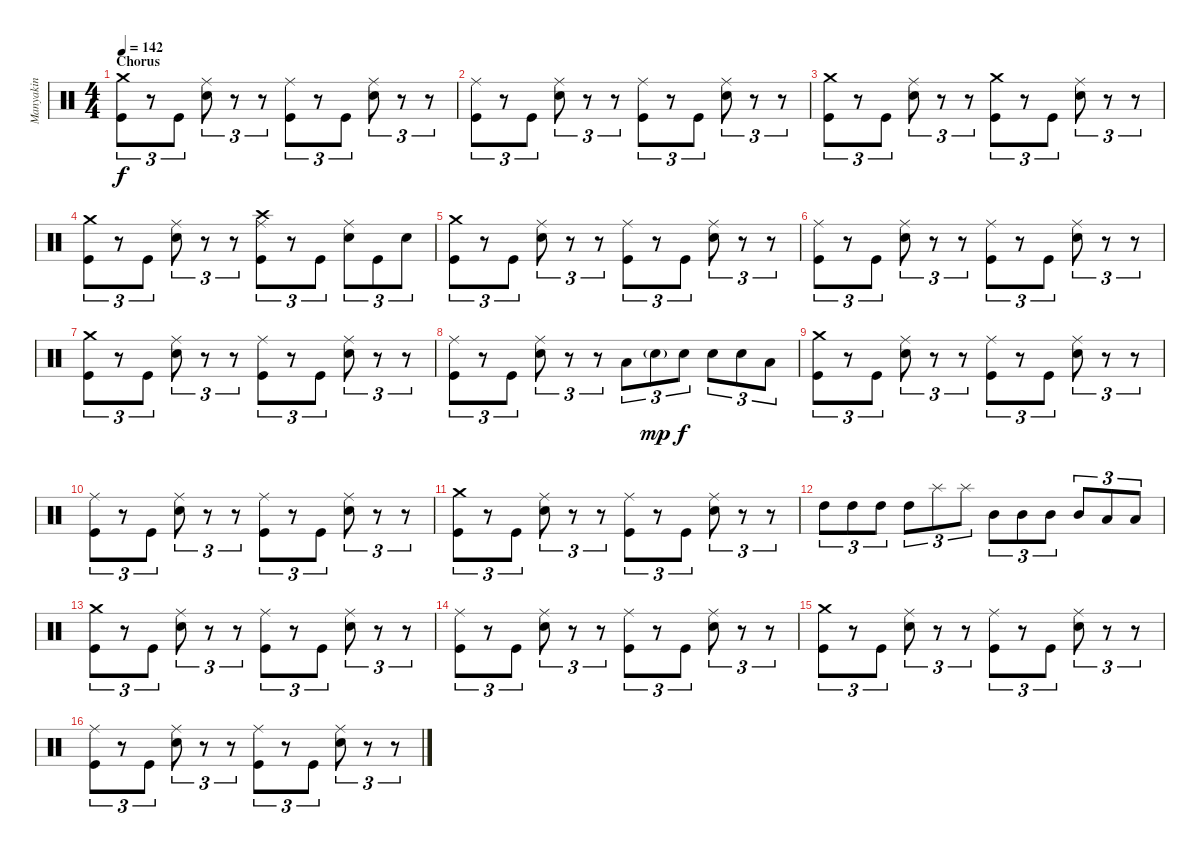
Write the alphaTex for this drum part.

\track ("Manyakin" "Manyakin") {instrument percussion}
\staff {score}
\articulation defaults
\ts (4 4)
\section ("" "Chorus")
\tempo 142
\clef neutral
\ks c
("Kick (hit)" "Crash medium (hit)").8{tu (3 2) dy f} r.8{tu (3 2)} "Kick (hit)".8{tu (3 2)} ("Electric Snare (hit)" "Ride (middle)").8{tu (3 2)} r.8{tu (3 2)} r.8{tu (3 2)} ("Kick (hit)" "Ride (middle)").8{tu (3 2)} r.8{tu (3 2)} "Kick (hit)".8{tu (3 2)} ("Electric Snare (hit)" "Ride (middle)").8{tu (3 2)} r.8{tu (3 2)} r.8{tu (3 2)} |
("Kick (hit)" "Ride (middle)").8{tu (3 2)} r.8{tu (3 2)} "Kick (hit)".8{tu (3 2)} ("Electric Snare (hit)" "Ride (middle)").8{tu (3 2)} r.8{tu (3 2)} r.8{tu (3 2)} ("Kick (hit)" "Ride (middle)").8{tu (3 2)} r.8{tu (3 2)} "Kick (hit)".8{tu (3 2)} ("Electric Snare (hit)" "Ride (middle)").8{tu (3 2)} r.8{tu (3 2)} r.8{tu (3 2)} |
("Kick (hit)" "Crash medium (hit)").8{tu (3 2)} r.8{tu (3 2)} "Kick (hit)".8{tu (3 2)} ("Electric Snare (hit)" "Ride (middle)").8{tu (3 2)} r.8{tu (3 2)} r.8{tu (3 2)} ("Kick (hit)" "Crash medium (hit)").8{tu (3 2)} r.8{tu (3 2)} "Kick (hit)".8{tu (3 2)} ("Electric Snare (hit)" "Ride (middle)").8{tu (3 2)} r.8{tu (3 2)} r.8{tu (3 2)} |
("Kick (hit)" "Crash medium (hit)").8{tu (3 2)} r.8{tu (3 2)} "Kick (hit)".8{tu (3 2)} ("Electric Snare (hit)" "Ride (middle)").8{tu (3 2)} r.8{tu (3 2)} r.8{tu (3 2)} ("Kick (hit)" "Crash high (hit)" "Ride (middle)").8{tu (3 2)} r.8{tu (3 2)} "Kick (hit)".8{tu (3 2)} ("Electric Snare (hit)" "Ride (middle)").8{tu (3 2)} "Kick (hit)".8{tu (3 2)} "Electric Snare (hit)".8{tu (3 2)} |
("Kick (hit)" "Crash medium (hit)").8{tu (3 2)} r.8{tu (3 2)} "Kick (hit)".8{tu (3 2)} ("Electric Snare (hit)" "Ride (middle)").8{tu (3 2)} r.8{tu (3 2)} r.8{tu (3 2)} ("Kick (hit)" "Ride (middle)").8{tu (3 2)} r.8{tu (3 2)} "Kick (hit)".8{tu (3 2)} ("Electric Snare (hit)" "Ride (middle)").8{tu (3 2)} r.8{tu (3 2)} r.8{tu (3 2)} |
("Kick (hit)" "Ride (middle)").8{tu (3 2)} r.8{tu (3 2)} "Kick (hit)".8{tu (3 2)} ("Electric Snare (hit)" "Ride (middle)").8{tu (3 2)} r.8{tu (3 2)} r.8{tu (3 2)} ("Kick (hit)" "Ride (middle)").8{tu (3 2)} r.8{tu (3 2)} "Kick (hit)".8{tu (3 2)} ("Electric Snare (hit)" "Ride (middle)").8{tu (3 2)} r.8{tu (3 2)} r.8{tu (3 2)} |
("Kick (hit)" "Crash medium (hit)").8{tu (3 2)} r.8{tu (3 2)} "Kick (hit)".8{tu (3 2)} ("Electric Snare (hit)" "Ride (middle)").8{tu (3 2)} r.8{tu (3 2)} r.8{tu (3 2)} ("Kick (hit)" "Ride (middle)").8{tu (3 2)} r.8{tu (3 2)} "Kick (hit)".8{tu (3 2)} ("Electric Snare (hit)" "Ride (middle)").8{tu (3 2)} r.8{tu (3 2)} r.8{tu (3 2)} |
("Kick (hit)" "Ride (middle)").8{tu (3 2)} r.8{tu (3 2)} "Kick (hit)".8{tu (3 2)} ("Electric Snare (hit)" "Ride (middle)").8{tu (3 2)} r.8{tu (3 2)} r.8{tu (3 2)} "Low Tom (hit)".8{tu (3 2)} "Electric Snare (hit)"{g}.8{tu (3 2) dy mp} "Electric Snare (hit)".8{tu (3 2) dy f} "Electric Snare (hit)".8{tu (3 2)} "Electric Snare (hit)".8{tu (3 2)} "Low Tom (hit)".8{tu (3 2)} |
("Kick (hit)" "Crash medium (hit)").8{tu (3 2)} r.8{tu (3 2)} "Kick (hit)".8{tu (3 2)} ("Electric Snare (hit)" "Ride (middle)").8{tu (3 2)} r.8{tu (3 2)} r.8{tu (3 2)} ("Kick (hit)" "Ride (middle)").8{tu (3 2)} r.8{tu (3 2)} "Kick (hit)".8{tu (3 2)} ("Electric Snare (hit)" "Ride (middle)").8{tu (3 2)} r.8{tu (3 2)} r.8{tu (3 2)} |
("Kick (hit)" "Ride (middle)").8{tu (3 2)} r.8{tu (3 2)} "Kick (hit)".8{tu (3 2)} ("Electric Snare (hit)" "Ride (middle)").8{tu (3 2)} r.8{tu (3 2)} r.8{tu (3 2)} ("Kick (hit)" "Ride (middle)").8{tu (3 2)} r.8{tu (3 2)} "Kick (hit)".8{tu (3 2)} ("Electric Snare (hit)" "Ride (middle)").8{tu (3 2)} r.8{tu (3 2)} r.8{tu (3 2)} |
("Kick (hit)" "Crash medium (hit)").8{tu (3 2)} r.8{tu (3 2)} "Kick (hit)".8{tu (3 2)} ("Electric Snare (hit)" "Ride (middle)").8{tu (3 2)} r.8{tu (3 2)} r.8{tu (3 2)} ("Kick (hit)" "Ride (middle)").8{tu (3 2)} r.8{tu (3 2)} "Kick (hit)".8{tu (3 2)} ("Electric Snare (hit)" "Ride (middle)").8{tu (3 2)} r.8{tu (3 2)} r.8{tu (3 2)} |
"High Tom (hit)".8{tu (3 2)} "High Tom (hit)".8{tu (3 2)} "High Tom (hit)".8{tu (3 2)} "High Tom (hit)".8{tu (3 2)} "Splash (hit)".8{tu (3 2)} "Splash (hit)".8{tu (3 2)} "Mid Tom (hit)".8{tu (3 2)} "Mid Tom (hit)".8{tu (3 2)} "Mid Tom (hit)".8{tu (3 2)} "Mid Tom (hit)".8{tu (3 2)} "Low Tom (hit)".8{tu (3 2)} "Low Tom (hit)".8{tu (3 2)} |
("Kick (hit)" "Crash medium (hit)").8{tu (3 2)} r.8{tu (3 2)} "Kick (hit)".8{tu (3 2)} ("Electric Snare (hit)" "Ride (middle)").8{tu (3 2)} r.8{tu (3 2)} r.8{tu (3 2)} ("Kick (hit)" "Ride (middle)").8{tu (3 2)} r.8{tu (3 2)} "Kick (hit)".8{tu (3 2)} ("Electric Snare (hit)" "Ride (middle)").8{tu (3 2)} r.8{tu (3 2)} r.8{tu (3 2)} |
("Kick (hit)" "Ride (middle)").8{tu (3 2)} r.8{tu (3 2)} "Kick (hit)".8{tu (3 2)} ("Electric Snare (hit)" "Ride (middle)").8{tu (3 2)} r.8{tu (3 2)} r.8{tu (3 2)} ("Kick (hit)" "Ride (middle)").8{tu (3 2)} r.8{tu (3 2)} "Kick (hit)".8{tu (3 2)} ("Electric Snare (hit)" "Ride (middle)").8{tu (3 2)} r.8{tu (3 2)} r.8{tu (3 2)} |
("Kick (hit)" "Crash medium (hit)").8{tu (3 2)} r.8{tu (3 2)} "Kick (hit)".8{tu (3 2)} ("Electric Snare (hit)" "Ride (middle)").8{tu (3 2)} r.8{tu (3 2)} r.8{tu (3 2)} ("Kick (hit)" "Ride (middle)").8{tu (3 2)} r.8{tu (3 2)} "Kick (hit)".8{tu (3 2)} ("Electric Snare (hit)" "Ride (middle)").8{tu (3 2)} r.8{tu (3 2)} r.8{tu (3 2)} |
("Kick (hit)" "Ride (middle)").8{tu (3 2)} r.8{tu (3 2)} "Kick (hit)".8{tu (3 2)} ("Electric Snare (hit)" "Ride (middle)").8{tu (3 2)} r.8{tu (3 2)} r.8{tu (3 2)} ("Kick (hit)" "Ride (middle)").8{tu (3 2)} r.8{tu (3 2)} "Kick (hit)".8{tu (3 2)} ("Electric Snare (hit)" "Ride (middle)").8{tu (3 2)} r.8{tu (3 2)} r.8{tu (3 2)}
